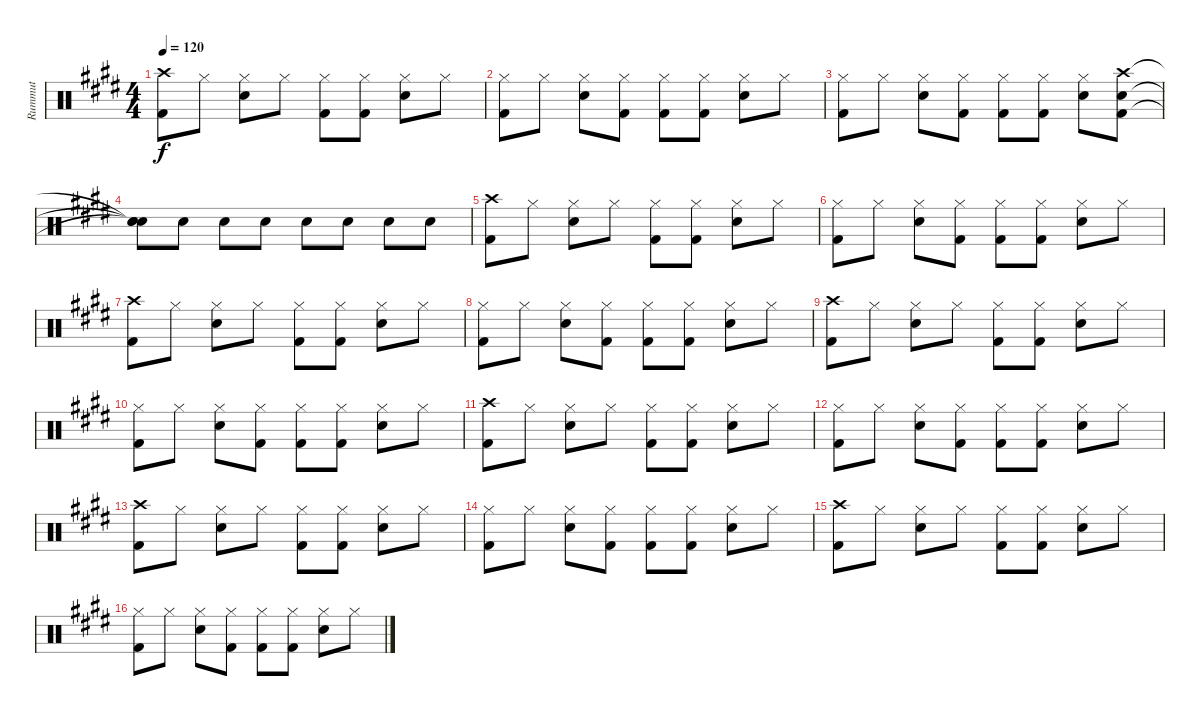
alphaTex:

\track ("Rummut" "Rummut") {instrument percussion}
\staff {score}
\articulation defaults
\ts (4 4)
\tempo 120
\clef neutral
\ks e
("Crash high (hit)" "Kick (hit) 2").8{dy f} "Hi-Hat (closed)".8 ("Hi-Hat (closed)" "Electric Snare (hit)").8 "Hi-Hat (closed)".8 ("Hi-Hat (closed)" "Kick (hit) 2").8 ("Hi-Hat (closed)" "Kick (hit) 2").8 ("Hi-Hat (closed)" "Electric Snare (hit)").8 "Hi-Hat (closed)".8 |
("Hi-Hat (closed)" "Kick (hit) 2").8 "Hi-Hat (closed)".8 ("Hi-Hat (closed)" "Electric Snare (hit)").8 ("Hi-Hat (closed)" "Kick (hit) 2").8 ("Hi-Hat (closed)" "Kick (hit) 2").8 ("Hi-Hat (closed)" "Kick (hit) 2").8 ("Hi-Hat (closed)" "Electric Snare (hit)").8 "Hi-Hat (closed)".8 |
("Hi-Hat (closed)" "Kick (hit) 2").8 "Hi-Hat (closed)".8 ("Hi-Hat (closed)" "Electric Snare (hit)").8 ("Hi-Hat (closed)" "Kick (hit) 2").8 ("Hi-Hat (closed)" "Kick (hit) 2").8 ("Hi-Hat (closed)" "Kick (hit) 2").8 ("Hi-Hat (closed)" "Electric Snare (hit)").8 ("Crash high (hit)" "Electric Snare (hit)" "Kick (hit) 2").8 |
("Snare (hit)"{t} "Snare (hit)"{t} "Snare (hit)"{t}).8 "Electric Snare (hit)".8 "Electric Snare (hit)".8 "Electric Snare (hit)".8 "Electric Snare (hit)".8 "Electric Snare (hit)".8 "Electric Snare (hit)".8 "Electric Snare (hit)".8 |
("Crash high (hit)" "Kick (hit) 2").8 "Hi-Hat (closed)".8 ("Hi-Hat (closed)" "Electric Snare (hit)").8 "Hi-Hat (closed)".8 ("Hi-Hat (closed)" "Kick (hit) 2").8 ("Hi-Hat (closed)" "Kick (hit) 2").8 ("Hi-Hat (closed)" "Electric Snare (hit)").8 "Hi-Hat (closed)".8 |
("Hi-Hat (closed)" "Kick (hit) 2").8 "Hi-Hat (closed)".8 ("Hi-Hat (closed)" "Electric Snare (hit)").8 ("Hi-Hat (closed)" "Kick (hit) 2").8 ("Hi-Hat (closed)" "Kick (hit) 2").8 ("Hi-Hat (closed)" "Kick (hit) 2").8 ("Hi-Hat (closed)" "Electric Snare (hit)").8 "Hi-Hat (closed)".8 |
("Crash high (hit)" "Kick (hit) 2").8 "Hi-Hat (closed)".8 ("Hi-Hat (closed)" "Electric Snare (hit)").8 "Hi-Hat (closed)".8 ("Hi-Hat (closed)" "Kick (hit) 2").8 ("Hi-Hat (closed)" "Kick (hit) 2").8 ("Hi-Hat (closed)" "Electric Snare (hit)").8 "Hi-Hat (closed)".8 |
("Hi-Hat (closed)" "Kick (hit) 2").8 "Hi-Hat (closed)".8 ("Hi-Hat (closed)" "Electric Snare (hit)").8 ("Hi-Hat (closed)" "Kick (hit) 2").8 ("Hi-Hat (closed)" "Kick (hit) 2").8 ("Hi-Hat (closed)" "Kick (hit) 2").8 ("Hi-Hat (closed)" "Electric Snare (hit)").8 "Hi-Hat (closed)".8 |
("Crash high (hit)" "Kick (hit) 2").8 "Hi-Hat (closed)".8 ("Hi-Hat (closed)" "Electric Snare (hit)").8 "Hi-Hat (closed)".8 ("Hi-Hat (closed)" "Kick (hit) 2").8 ("Hi-Hat (closed)" "Kick (hit) 2").8 ("Hi-Hat (closed)" "Electric Snare (hit)").8 "Hi-Hat (closed)".8 |
("Hi-Hat (closed)" "Kick (hit) 2").8 "Hi-Hat (closed)".8 ("Hi-Hat (closed)" "Electric Snare (hit)").8 ("Hi-Hat (closed)" "Kick (hit) 2").8 ("Hi-Hat (closed)" "Kick (hit) 2").8 ("Hi-Hat (closed)" "Kick (hit) 2").8 ("Hi-Hat (closed)" "Electric Snare (hit)").8 "Hi-Hat (closed)".8 |
("Crash high (hit)" "Kick (hit) 2").8 "Hi-Hat (closed)".8 ("Hi-Hat (closed)" "Electric Snare (hit)").8 "Hi-Hat (closed)".8 ("Hi-Hat (closed)" "Kick (hit) 2").8 ("Hi-Hat (closed)" "Kick (hit) 2").8 ("Hi-Hat (closed)" "Electric Snare (hit)").8 "Hi-Hat (closed)".8 |
("Hi-Hat (closed)" "Kick (hit) 2").8 "Hi-Hat (closed)".8 ("Hi-Hat (closed)" "Electric Snare (hit)").8 ("Hi-Hat (closed)" "Kick (hit) 2").8 ("Hi-Hat (closed)" "Kick (hit) 2").8 ("Hi-Hat (closed)" "Kick (hit) 2").8 ("Hi-Hat (closed)" "Electric Snare (hit)").8 "Hi-Hat (closed)".8 |
("Crash high (hit)" "Kick (hit) 2").8 "Hi-Hat (closed)".8 ("Hi-Hat (closed)" "Electric Snare (hit)").8 "Hi-Hat (closed)".8 ("Hi-Hat (closed)" "Kick (hit) 2").8 ("Hi-Hat (closed)" "Kick (hit) 2").8 ("Hi-Hat (closed)" "Electric Snare (hit)").8 "Hi-Hat (closed)".8 |
("Hi-Hat (closed)" "Kick (hit) 2").8 "Hi-Hat (closed)".8 ("Hi-Hat (closed)" "Electric Snare (hit)").8 ("Hi-Hat (closed)" "Kick (hit) 2").8 ("Hi-Hat (closed)" "Kick (hit) 2").8 ("Hi-Hat (closed)" "Kick (hit) 2").8 ("Hi-Hat (closed)" "Electric Snare (hit)").8 "Hi-Hat (closed)".8 |
("Crash high (hit)" "Kick (hit) 2").8 "Hi-Hat (closed)".8 ("Hi-Hat (closed)" "Electric Snare (hit)").8 "Hi-Hat (closed)".8 ("Hi-Hat (closed)" "Kick (hit) 2").8 ("Hi-Hat (closed)" "Kick (hit) 2").8 ("Hi-Hat (closed)" "Electric Snare (hit)").8 "Hi-Hat (closed)".8 |
("Hi-Hat (closed)" "Kick (hit) 2").8 "Hi-Hat (closed)".8 ("Hi-Hat (closed)" "Electric Snare (hit)").8 ("Hi-Hat (closed)" "Kick (hit) 2").8 ("Hi-Hat (closed)" "Kick (hit) 2").8 ("Hi-Hat (closed)" "Kick (hit) 2").8 ("Hi-Hat (closed)" "Electric Snare (hit)").8 "Hi-Hat (closed)".8
